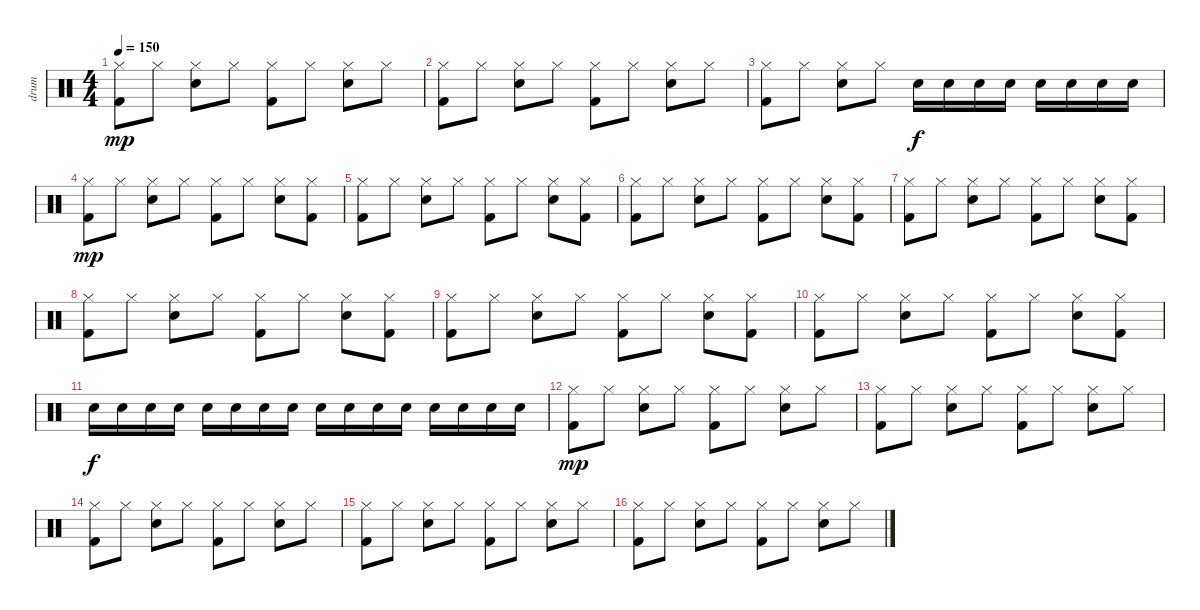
\track ("drum" "drum") {instrument percussion}
\staff {score}
\articulation defaults
\ts (4 4)
\tempo 150
\clef neutral
\ks c
("Hi-Hat (closed)" "Kick (hit) 2").8{dy mp} "Hi-Hat (closed)".8 ("Hi-Hat (closed)" "Electric Snare (hit)").8 "Hi-Hat (closed)".8 ("Hi-Hat (closed)" "Kick (hit) 2").8 "Hi-Hat (closed)".8 ("Hi-Hat (closed)" "Electric Snare (hit)").8 "Hi-Hat (closed)".8 |
("Hi-Hat (closed)" "Kick (hit) 2").8 "Hi-Hat (closed)".8 ("Hi-Hat (closed)" "Electric Snare (hit)").8 "Hi-Hat (closed)".8 ("Hi-Hat (closed)" "Kick (hit) 2").8 "Hi-Hat (closed)".8 ("Hi-Hat (closed)" "Electric Snare (hit)").8 "Hi-Hat (closed)".8 |
("Hi-Hat (closed)" "Kick (hit) 2").8 "Hi-Hat (closed)".8 ("Hi-Hat (closed)" "Electric Snare (hit)").8 "Hi-Hat (closed)".8 "Electric Snare (hit)".16{dy f} "Electric Snare (hit)".16 "Electric Snare (hit)".16 "Electric Snare (hit)".16 "Electric Snare (hit)".16 "Electric Snare (hit)".16 "Electric Snare (hit)".16 "Electric Snare (hit)".16 |
("Hi-Hat (closed)" "Kick (hit) 2").8{dy mp} "Hi-Hat (closed)".8 ("Hi-Hat (closed)" "Electric Snare (hit)").8 "Hi-Hat (closed)".8 ("Hi-Hat (closed)" "Kick (hit) 2").8 "Hi-Hat (closed)".8 ("Hi-Hat (closed)" "Electric Snare (hit)").8 ("Hi-Hat (closed)" "Kick (hit) 2").8 |
("Hi-Hat (closed)" "Kick (hit) 2").8 "Hi-Hat (closed)".8 ("Hi-Hat (closed)" "Electric Snare (hit)").8 "Hi-Hat (closed)".8 ("Hi-Hat (closed)" "Kick (hit) 2").8 "Hi-Hat (closed)".8 ("Hi-Hat (closed)" "Electric Snare (hit)").8 ("Hi-Hat (closed)" "Kick (hit) 2").8 |
("Hi-Hat (closed)" "Kick (hit) 2").8 "Hi-Hat (closed)".8 ("Hi-Hat (closed)" "Electric Snare (hit)").8 "Hi-Hat (closed)".8 ("Hi-Hat (closed)" "Kick (hit) 2").8 "Hi-Hat (closed)".8 ("Hi-Hat (closed)" "Electric Snare (hit)").8 ("Hi-Hat (closed)" "Kick (hit) 2").8 |
("Hi-Hat (closed)" "Kick (hit) 2").8 "Hi-Hat (closed)".8 ("Hi-Hat (closed)" "Electric Snare (hit)").8 "Hi-Hat (closed)".8 ("Hi-Hat (closed)" "Kick (hit) 2").8 "Hi-Hat (closed)".8 ("Hi-Hat (closed)" "Electric Snare (hit)").8 ("Hi-Hat (closed)" "Kick (hit) 2").8 |
("Hi-Hat (closed)" "Kick (hit) 2").8 "Hi-Hat (closed)".8 ("Hi-Hat (closed)" "Electric Snare (hit)").8 "Hi-Hat (closed)".8 ("Hi-Hat (closed)" "Kick (hit) 2").8 "Hi-Hat (closed)".8 ("Hi-Hat (closed)" "Electric Snare (hit)").8 ("Hi-Hat (closed)" "Kick (hit) 2").8 |
("Hi-Hat (closed)" "Kick (hit) 2").8 "Hi-Hat (closed)".8 ("Hi-Hat (closed)" "Electric Snare (hit)").8 "Hi-Hat (closed)".8 ("Hi-Hat (closed)" "Kick (hit) 2").8 "Hi-Hat (closed)".8 ("Hi-Hat (closed)" "Electric Snare (hit)").8 ("Hi-Hat (closed)" "Kick (hit) 2").8 |
("Hi-Hat (closed)" "Kick (hit) 2").8 "Hi-Hat (closed)".8 ("Hi-Hat (closed)" "Electric Snare (hit)").8 "Hi-Hat (closed)".8 ("Hi-Hat (closed)" "Kick (hit) 2").8 "Hi-Hat (closed)".8 ("Hi-Hat (closed)" "Electric Snare (hit)").8 ("Hi-Hat (closed)" "Kick (hit) 2").8 |
"Electric Snare (hit)".16{dy f} "Electric Snare (hit)".16 "Electric Snare (hit)".16 "Electric Snare (hit)".16 "Electric Snare (hit)".16 "Electric Snare (hit)".16 "Electric Snare (hit)".16 "Electric Snare (hit)".16 "Electric Snare (hit)".16 "Electric Snare (hit)".16 "Electric Snare (hit)".16 "Electric Snare (hit)".16 "Electric Snare (hit)".16 "Electric Snare (hit)".16 "Electric Snare (hit)".16 "Electric Snare (hit)".16 |
("Hi-Hat (closed)" "Kick (hit) 2").8{dy mp} "Hi-Hat (closed)".8 ("Hi-Hat (closed)" "Electric Snare (hit)").8 "Hi-Hat (closed)".8 ("Hi-Hat (closed)" "Kick (hit) 2").8 "Hi-Hat (closed)".8 ("Hi-Hat (closed)" "Electric Snare (hit)").8 "Hi-Hat (closed)".8 |
("Hi-Hat (closed)" "Kick (hit) 2").8 "Hi-Hat (closed)".8 ("Hi-Hat (closed)" "Electric Snare (hit)").8 "Hi-Hat (closed)".8 ("Hi-Hat (closed)" "Kick (hit) 2").8 "Hi-Hat (closed)".8 ("Hi-Hat (closed)" "Electric Snare (hit)").8 "Hi-Hat (closed)".8 |
("Hi-Hat (closed)" "Kick (hit) 2").8 "Hi-Hat (closed)".8 ("Hi-Hat (closed)" "Electric Snare (hit)").8 "Hi-Hat (closed)".8 ("Hi-Hat (closed)" "Kick (hit) 2").8 "Hi-Hat (closed)".8 ("Hi-Hat (closed)" "Electric Snare (hit)").8 "Hi-Hat (closed)".8 |
("Hi-Hat (closed)" "Kick (hit) 2").8 "Hi-Hat (closed)".8 ("Hi-Hat (closed)" "Electric Snare (hit)").8 "Hi-Hat (closed)".8 ("Hi-Hat (closed)" "Kick (hit) 2").8 "Hi-Hat (closed)".8 ("Hi-Hat (closed)" "Electric Snare (hit)").8 "Hi-Hat (closed)".8 |
("Hi-Hat (closed)" "Kick (hit) 2").8 "Hi-Hat (closed)".8 ("Hi-Hat (closed)" "Electric Snare (hit)").8 "Hi-Hat (closed)".8 ("Hi-Hat (closed)" "Kick (hit) 2").8 "Hi-Hat (closed)".8 ("Hi-Hat (closed)" "Electric Snare (hit)").8 "Hi-Hat (closed)".8
